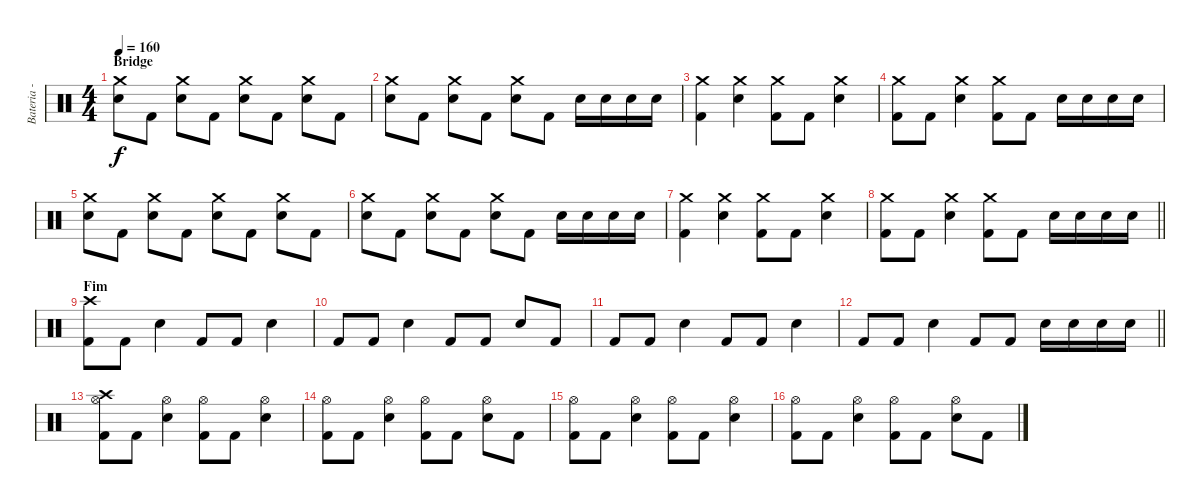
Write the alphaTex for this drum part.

\track ("Bateria - Larzon" "Bateria - ") {instrument percussion}
\staff {score}
\articulation defaults
\ts (4 4)
\section ("" "Bridge")
\tempo 160
\clef neutral
\ks c
("Snare (hit) 2" "Crash medium (hit)").8{dy f} "Kick (hit) 2".8 ("Snare (hit) 2" "Crash medium (hit)").8 "Kick (hit) 2".8 ("Snare (hit) 2" "Crash medium (hit)").8 "Kick (hit) 2".8 ("Snare (hit) 2" "Crash medium (hit)").8 "Kick (hit) 2".8 |
("Snare (hit) 2" "Crash medium (hit)").8 "Kick (hit) 2".8 ("Snare (hit) 2" "Crash medium (hit)").8 "Kick (hit) 2".8 ("Snare (hit) 2" "Crash medium (hit)").8 "Kick (hit) 2".8 "Snare (hit) 2".16 "Snare (hit) 2".16 "Snare (hit) 2".16 "Snare (hit) 2".16 |
("Kick (hit) 2" "Crash medium (hit)").4 ("Snare (hit) 2" "Crash medium (hit)").4 ("Kick (hit) 2" "Crash medium (hit)").8 "Kick (hit) 2".8 ("Snare (hit) 2" "Crash medium (hit)").4 |
("Kick (hit) 2" "Crash medium (hit)").8 "Kick (hit) 2".8 ("Snare (hit) 2" "Crash medium (hit)").4 ("Kick (hit) 2" "Crash medium (hit)").8 "Kick (hit) 2".8 "Snare (hit) 2".16 "Snare (hit) 2".16 "Snare (hit) 2".16 "Snare (hit) 2".16 |
("Snare (hit) 2" "Crash medium (hit)").8 "Kick (hit) 2".8 ("Snare (hit) 2" "Crash medium (hit)").8 "Kick (hit) 2".8 ("Snare (hit) 2" "Crash medium (hit)").8 "Kick (hit) 2".8 ("Snare (hit) 2" "Crash medium (hit)").8 "Kick (hit) 2".8 |
("Snare (hit) 2" "Crash medium (hit)").8 "Kick (hit) 2".8 ("Snare (hit) 2" "Crash medium (hit)").8 "Kick (hit) 2".8 ("Snare (hit) 2" "Crash medium (hit)").8 "Kick (hit) 2".8 "Snare (hit) 2".16 "Snare (hit) 2".16 "Snare (hit) 2".16 "Snare (hit) 2".16 |
("Kick (hit) 2" "Crash medium (hit)").4 ("Snare (hit) 2" "Crash medium (hit)").4 ("Kick (hit) 2" "Crash medium (hit)").8 "Kick (hit) 2".8 ("Snare (hit) 2" "Crash medium (hit)").4 |
\barLineRight lightlight
("Kick (hit) 2" "Crash medium (hit)").8 "Kick (hit) 2".8 ("Snare (hit) 2" "Crash medium (hit)").4 ("Kick (hit) 2" "Crash medium (hit)").8 "Kick (hit) 2".8 "Snare (hit) 2".16 "Snare (hit) 2".16 "Snare (hit) 2".16 "Snare (hit) 2".16 |
\section ("" "Fim")
("Kick (hit) 2" "Crash high (hit)").8 "Kick (hit) 2".8 "Snare (hit) 2".4 "Kick (hit) 2".8 "Kick (hit) 2".8 "Snare (hit) 2".4 |
"Kick (hit) 2".8 "Kick (hit) 2".8 "Snare (hit) 2".4 "Kick (hit) 2".8 "Kick (hit) 2".8 "Snare (hit) 2".8 "Kick (hit) 2".8 |
"Kick (hit) 2".8 "Kick (hit) 2".8 "Snare (hit) 2".4 "Kick (hit) 2".8 "Kick (hit) 2".8 "Snare (hit) 2".4 |
\barLineRight lightlight "Kick (hit) 2".8 "Kick (hit) 2".8 "Snare (hit) 2".4 "Kick (hit) 2".8 "Kick (hit) 2".8 "Snare (hit) 2".16 "Snare (hit) 2".16 "Snare (hit) 2".16 "Snare (hit) 2".16
|
("Kick (hit) 2" "Hi-Hat (open)" "Crash high (hit)").8 "Kick (hit) 2".8 ("Snare (hit) 2" "Hi-Hat (open)").4 ("Kick (hit) 2" "Hi-Hat (open)").8 "Kick (hit) 2".8 ("Snare (hit) 2" "Hi-Hat (open)").4 |
("Kick (hit) 2" "Hi-Hat (open)").8 "Kick (hit) 2".8 ("Snare (hit) 2" "Hi-Hat (open)").4 ("Kick (hit) 2" "Hi-Hat (open)").8 "Kick (hit) 2".8 ("Snare (hit) 2" "Hi-Hat (open)").8 "Kick (hit) 2".8 |
("Kick (hit) 2" "Hi-Hat (open)").8 "Kick (hit) 2".8 ("Snare (hit) 2" "Hi-Hat (open)").4 ("Kick (hit) 2" "Hi-Hat (open)").8 "Kick (hit) 2".8 ("Snare (hit) 2" "Hi-Hat (open)").4 |
("Kick (hit) 2" "Hi-Hat (open)").8 "Kick (hit) 2".8 ("Snare (hit) 2" "Hi-Hat (open)").4 ("Kick (hit) 2" "Hi-Hat (open)").8 "Kick (hit) 2".8 ("Snare (hit) 2" "Hi-Hat (open)").8 "Kick (hit) 2".8
